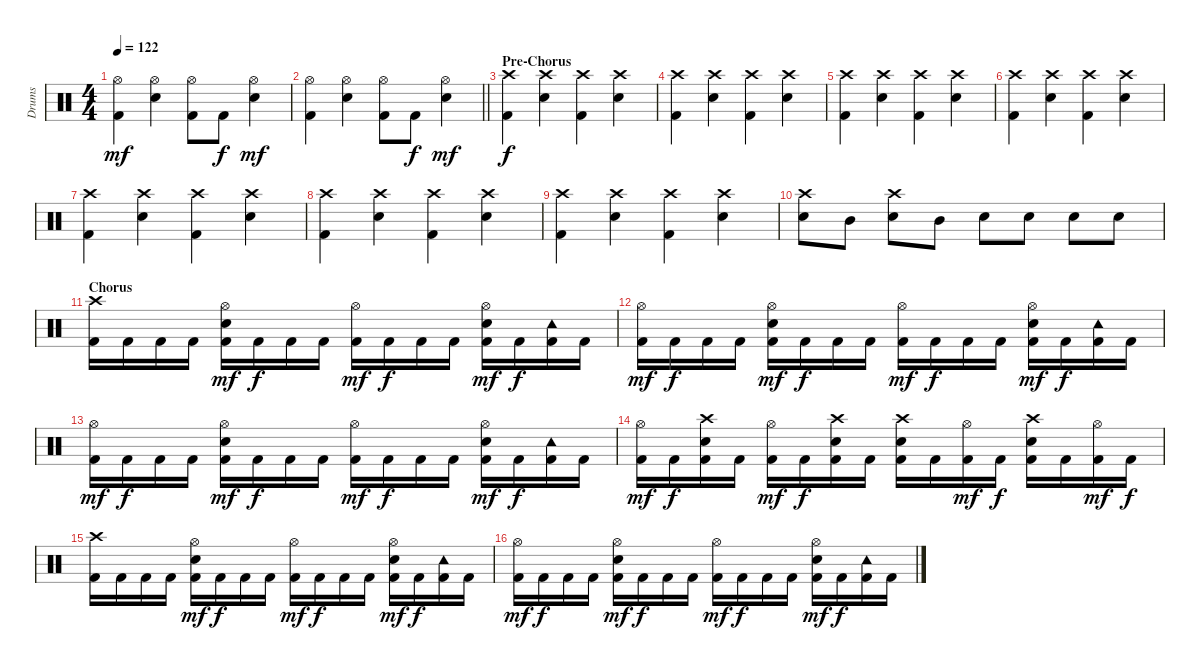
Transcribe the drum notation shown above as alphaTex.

\track ("Drums" "Drums") {instrument percussion}
\staff {score}
\articulation defaults
\ts (4 4)
\tempo 122
\clef neutral
\ks c
("Hi-Hat (open)" "Kick (hit) 2").4{dy mf} ("Hi-Hat (open)" "Electric Snare (hit)").4 ("Hi-Hat (open)" "Kick (hit) 2").8 "Kick (hit) 2".8{dy f} ("Hi-Hat (open)" "Electric Snare (hit)").4{dy mf} |
\barLineRight lightlight
("Hi-Hat (open)" "Kick (hit) 2").4 ("Hi-Hat (open)" "Electric Snare (hit)").4 ("Hi-Hat (open)" "Kick (hit) 2").8 "Kick (hit) 2".8{dy f} ("Hi-Hat (open)" "Electric Snare (hit)").4{dy mf} |
\section ("" "Pre-Chorus")
("Crash high (hit)" "Kick (hit) 2").4{dy f} ("Crash high (hit)" "Electric Snare (hit)").4 ("Crash high (hit)" "Kick (hit) 2").4 ("Crash high (hit)" "Electric Snare (hit)").4 |
("Crash high (hit)" "Kick (hit) 2").4 ("Crash high (hit)" "Electric Snare (hit)").4 ("Crash high (hit)" "Kick (hit) 2").4 ("Crash high (hit)" "Electric Snare (hit)").4 |
("Crash high (hit)" "Kick (hit) 2").4 ("Crash high (hit)" "Electric Snare (hit)").4 ("Crash high (hit)" "Kick (hit) 2").4 ("Crash high (hit)" "Electric Snare (hit)").4 |
("Crash high (hit)" "Kick (hit) 2").4 ("Crash high (hit)" "Electric Snare (hit)").4 ("Crash high (hit)" "Kick (hit) 2").4 ("Crash high (hit)" "Electric Snare (hit)").4 |
("Crash high (hit)" "Kick (hit) 2").4 ("Crash high (hit)" "Electric Snare (hit)").4 ("Crash high (hit)" "Kick (hit) 2").4 ("Crash high (hit)" "Electric Snare (hit)").4 |
("Crash high (hit)" "Kick (hit) 2").4 ("Crash high (hit)" "Electric Snare (hit)").4 ("Crash high (hit)" "Kick (hit) 2").4 ("Crash high (hit)" "Electric Snare (hit)").4 |
("Crash high (hit)" "Kick (hit) 2").4 ("Crash high (hit)" "Electric Snare (hit)").4 ("Crash high (hit)" "Kick (hit) 2").4 ("Crash high (hit)" "Electric Snare (hit)").4 |
("Crash high (hit)" "Electric Snare (hit)").8 "Mid Tom (hit)".8 ("Crash high (hit)" "Electric Snare (hit)").8 "Mid Tom (hit)".8 "Electric Snare (hit)".8 "Electric Snare (hit)".8 "Electric Snare (hit)".8 "Electric Snare (hit)".8 |
\section ("" "Chorus")
("Crash high (hit)" "Kick (hit) 2").16 "Kick (hit) 2".16 "Kick (hit) 2".16 "Kick (hit) 2".16 ("Hi-Hat (open)" "Electric Snare (hit)" "Kick (hit) 2").16{dy mf} "Kick (hit) 2".16{dy f} "Kick (hit) 2".16 "Kick (hit) 2".16 ("Hi-Hat (open)" "Kick (hit) 2").16{dy mf} "Kick (hit) 2".16{dy f} "Kick (hit) 2".16 "Kick (hit) 2".16 ("Hi-Hat (open)" "Electric Snare (hit)" "Kick (hit) 2").16{dy mf} "Kick (hit) 2".16{dy f} ("Tambourine (hit)" "Kick (hit) 2").16 "Kick (hit) 2".16 |
("Hi-Hat (open)" "Kick (hit) 2").16{dy mf} "Kick (hit) 2".16{dy f} "Kick (hit) 2".16 "Kick (hit) 2".16 ("Hi-Hat (open)" "Electric Snare (hit)" "Kick (hit) 2").16{dy mf} "Kick (hit) 2".16{dy f} "Kick (hit) 2".16 "Kick (hit) 2".16 ("Hi-Hat (open)" "Kick (hit) 2").16{dy mf} "Kick (hit) 2".16{dy f} "Kick (hit) 2".16 "Kick (hit) 2".16 ("Hi-Hat (open)" "Electric Snare (hit)" "Kick (hit) 2").16{dy mf} "Kick (hit) 2".16{dy f} ("Tambourine (hit)" "Kick (hit) 2").16 "Kick (hit) 2".16 |
("Hi-Hat (open)" "Kick (hit) 2").16{dy mf} "Kick (hit) 2".16{dy f} "Kick (hit) 2".16 "Kick (hit) 2".16 ("Hi-Hat (open)" "Electric Snare (hit)" "Kick (hit) 2").16{dy mf} "Kick (hit) 2".16{dy f} "Kick (hit) 2".16 "Kick (hit) 2".16 ("Hi-Hat (open)" "Kick (hit) 2").16{dy mf} "Kick (hit) 2".16{dy f} "Kick (hit) 2".16 "Kick (hit) 2".16 ("Hi-Hat (open)" "Electric Snare (hit)" "Kick (hit) 2").16{dy mf} "Kick (hit) 2".16{dy f} ("Tambourine (hit)" "Kick (hit) 2").16 "Kick (hit) 2".16 |
("Hi-Hat (open)" "Kick (hit) 2").16{dy mf} "Kick (hit) 2".16{dy f} ("Crash high (hit)" "Electric Snare (hit)" "Kick (hit) 2").16 "Kick (hit) 2".16 ("Hi-Hat (open)" "Kick (hit) 2").16{dy mf} "Kick (hit) 2".16{dy f} ("Crash high (hit)" "Electric Snare (hit)" "Kick (hit) 2").16 "Kick (hit) 2".16 ("Crash high (hit)" "Electric Snare (hit)" "Kick (hit) 2").16 "Kick (hit) 2".16 ("Hi-Hat (open)" "Kick (hit) 2").16{dy mf} "Kick (hit) 2".16{dy f} ("Crash high (hit)" "Electric Snare (hit)" "Kick (hit) 2").16 "Kick (hit) 2".16 ("Hi-Hat (open)" "Kick (hit) 2").16{dy mf} "Kick (hit) 2".16{dy f} |
("Crash high (hit)" "Kick (hit) 2").16 "Kick (hit) 2".16 "Kick (hit) 2".16 "Kick (hit) 2".16 ("Hi-Hat (open)" "Electric Snare (hit)" "Kick (hit) 2").16{dy mf} "Kick (hit) 2".16{dy f} "Kick (hit) 2".16 "Kick (hit) 2".16 ("Hi-Hat (open)" "Kick (hit) 2").16{dy mf} "Kick (hit) 2".16{dy f} "Kick (hit) 2".16 "Kick (hit) 2".16 ("Hi-Hat (open)" "Electric Snare (hit)" "Kick (hit) 2").16{dy mf} "Kick (hit) 2".16{dy f} ("Tambourine (hit)" "Kick (hit) 2").16 "Kick (hit) 2".16 |
("Hi-Hat (open)" "Kick (hit) 2").16{dy mf} "Kick (hit) 2".16{dy f} "Kick (hit) 2".16 "Kick (hit) 2".16 ("Hi-Hat (open)" "Electric Snare (hit)" "Kick (hit) 2").16{dy mf} "Kick (hit) 2".16{dy f} "Kick (hit) 2".16 "Kick (hit) 2".16 ("Hi-Hat (open)" "Kick (hit) 2").16{dy mf} "Kick (hit) 2".16{dy f} "Kick (hit) 2".16 "Kick (hit) 2".16 ("Hi-Hat (open)" "Electric Snare (hit)" "Kick (hit) 2").16{dy mf} "Kick (hit) 2".16{dy f} ("Tambourine (hit)" "Kick (hit) 2").16 "Kick (hit) 2".16
